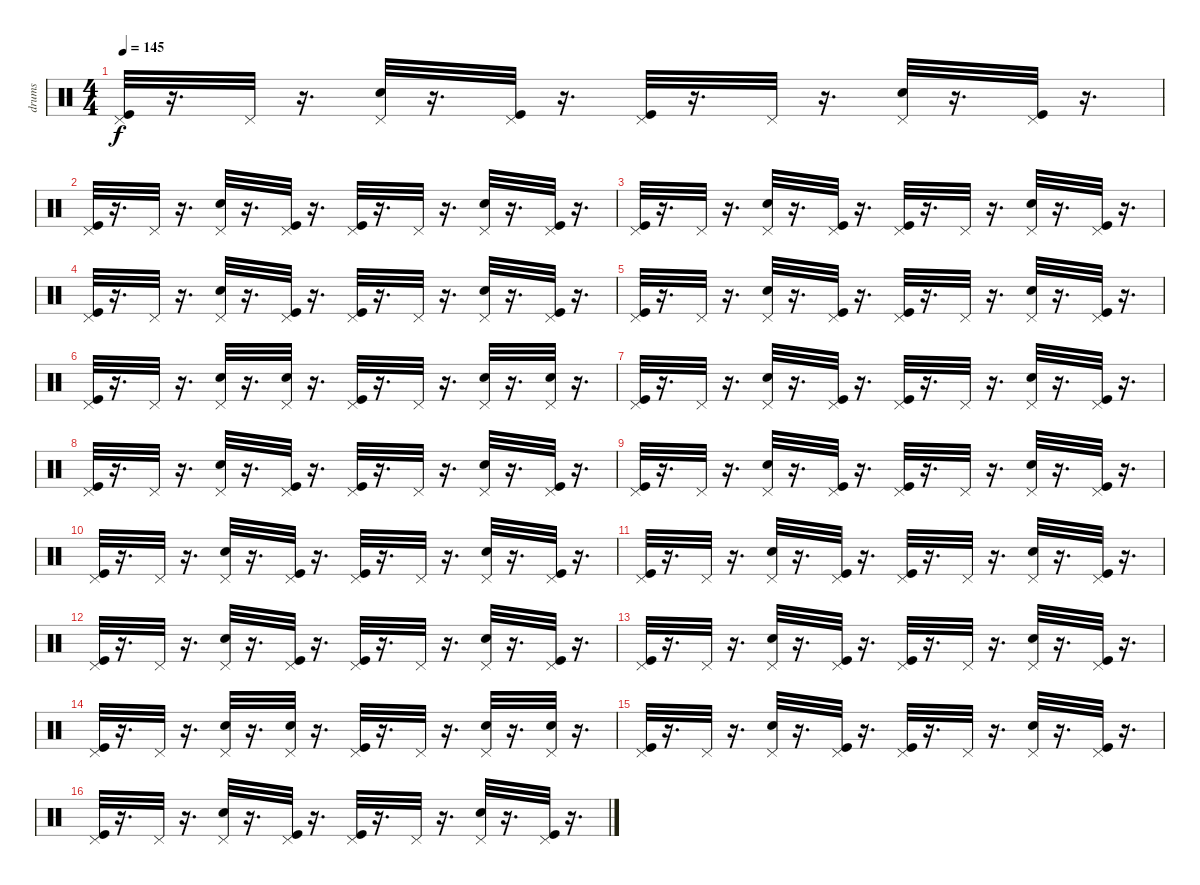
\track ("drums" "drums") {instrument percussion}
\staff {score}
\articulation defaults
\ts (4 4)
\tempo 145
\clef neutral
\ks c
("Pedal Hi-Hat (hit)" "Kick (hit)").32{dy f} r.16{d} "Pedal Hi-Hat (hit)".32 r.16{d} ("Pedal Hi-Hat (hit)" "Electric Snare (hit)").32 r.16{d} ("Pedal Hi-Hat (hit)" "Kick (hit)").32 r.16{d} ("Pedal Hi-Hat (hit)" "Kick (hit)").32 r.16{d} "Pedal Hi-Hat (hit)".32 r.16{d} ("Pedal Hi-Hat (hit)" "Electric Snare (hit)").32 r.16{d} ("Pedal Hi-Hat (hit)" "Kick (hit)").32 r.16{d} |
("Pedal Hi-Hat (hit)" "Kick (hit)").32 r.16{d} "Pedal Hi-Hat (hit)".32 r.16{d} ("Pedal Hi-Hat (hit)" "Electric Snare (hit)").32 r.16{d} ("Pedal Hi-Hat (hit)" "Kick (hit)").32 r.16{d} ("Pedal Hi-Hat (hit)" "Kick (hit)").32 r.16{d} "Pedal Hi-Hat (hit)".32 r.16{d} ("Pedal Hi-Hat (hit)" "Electric Snare (hit)").32 r.16{d} ("Pedal Hi-Hat (hit)" "Kick (hit)").32 r.16{d} |
("Pedal Hi-Hat (hit)" "Kick (hit)").32 r.16{d} "Pedal Hi-Hat (hit)".32 r.16{d} ("Pedal Hi-Hat (hit)" "Electric Snare (hit)").32 r.16{d} ("Pedal Hi-Hat (hit)" "Kick (hit)").32 r.16{d} ("Pedal Hi-Hat (hit)" "Kick (hit)").32 r.16{d} "Pedal Hi-Hat (hit)".32 r.16{d} ("Pedal Hi-Hat (hit)" "Electric Snare (hit)").32 r.16{d} ("Pedal Hi-Hat (hit)" "Kick (hit)").32 r.16{d} |
("Pedal Hi-Hat (hit)" "Kick (hit)").32 r.16{d} "Pedal Hi-Hat (hit)".32 r.16{d} ("Pedal Hi-Hat (hit)" "Electric Snare (hit)").32 r.16{d} ("Pedal Hi-Hat (hit)" "Kick (hit)").32 r.16{d} ("Pedal Hi-Hat (hit)" "Kick (hit)").32 r.16{d} "Pedal Hi-Hat (hit)".32 r.16{d} ("Pedal Hi-Hat (hit)" "Electric Snare (hit)").32 r.16{d} ("Pedal Hi-Hat (hit)" "Kick (hit)").32 r.16{d} |
("Pedal Hi-Hat (hit)" "Kick (hit)").32 r.16{d} "Pedal Hi-Hat (hit)".32 r.16{d} ("Pedal Hi-Hat (hit)" "Electric Snare (hit)").32 r.16{d} ("Pedal Hi-Hat (hit)" "Kick (hit)").32 r.16{d} ("Pedal Hi-Hat (hit)" "Kick (hit)").32 r.16{d} "Pedal Hi-Hat (hit)".32 r.16{d} ("Pedal Hi-Hat (hit)" "Electric Snare (hit)").32 r.16{d} ("Pedal Hi-Hat (hit)" "Kick (hit)").32 r.16{d} |
("Pedal Hi-Hat (hit)" "Kick (hit)").32 r.16{d} "Pedal Hi-Hat (hit)".32 r.16{d} ("Pedal Hi-Hat (hit)" "Electric Snare (hit)").32 r.16{d} ("Electric Snare (hit)" "Pedal Hi-Hat (hit)").32 r.16{d} ("Pedal Hi-Hat (hit)" "Kick (hit)").32 r.16{d} "Pedal Hi-Hat (hit)".32 r.16{d} ("Electric Snare (hit)" "Pedal Hi-Hat (hit)").32 r.16{d} ("Electric Snare (hit)" "Pedal Hi-Hat (hit)").32 r.16{d} |
("Kick (hit)" "Pedal Hi-Hat (hit)").32 r.16{d} "Pedal Hi-Hat (hit)".32 r.16{d} ("Electric Snare (hit)" "Pedal Hi-Hat (hit)").32 r.16{d} ("Pedal Hi-Hat (hit)" "Kick (hit)").32 r.16{d} ("Pedal Hi-Hat (hit)" "Kick (hit)").32 r.16{d} "Pedal Hi-Hat (hit)".32 r.16{d} ("Pedal Hi-Hat (hit)" "Electric Snare (hit)").32 r.16{d} ("Pedal Hi-Hat (hit)" "Kick (hit)").32 r.16{d} |
("Pedal Hi-Hat (hit)" "Kick (hit)").32 r.16{d} "Pedal Hi-Hat (hit)".32 r.16{d} ("Pedal Hi-Hat (hit)" "Electric Snare (hit)").32 r.16{d} ("Pedal Hi-Hat (hit)" "Kick (hit)").32 r.16{d} ("Pedal Hi-Hat (hit)" "Kick (hit)").32 r.16{d} "Pedal Hi-Hat (hit)".32 r.16{d} ("Pedal Hi-Hat (hit)" "Electric Snare (hit)").32 r.16{d} ("Pedal Hi-Hat (hit)" "Kick (hit)").32 r.16{d} |
("Pedal Hi-Hat (hit)" "Kick (hit)").32 r.16{d} "Pedal Hi-Hat (hit)".32 r.16{d} ("Pedal Hi-Hat (hit)" "Electric Snare (hit)").32 r.16{d} ("Pedal Hi-Hat (hit)" "Kick (hit)").32 r.16{d} ("Pedal Hi-Hat (hit)" "Kick (hit)").32 r.16{d} "Pedal Hi-Hat (hit)".32 r.16{d} ("Pedal Hi-Hat (hit)" "Electric Snare (hit)").32 r.16{d} ("Pedal Hi-Hat (hit)" "Kick (hit)").32 r.16{d} |
("Pedal Hi-Hat (hit)" "Kick (hit)").32 r.16{d} "Pedal Hi-Hat (hit)".32 r.16{d} ("Pedal Hi-Hat (hit)" "Electric Snare (hit)").32 r.16{d} ("Pedal Hi-Hat (hit)" "Kick (hit)").32 r.16{d} ("Pedal Hi-Hat (hit)" "Kick (hit)").32 r.16{d} "Pedal Hi-Hat (hit)".32 r.16{d} ("Pedal Hi-Hat (hit)" "Electric Snare (hit)").32 r.16{d} ("Pedal Hi-Hat (hit)" "Kick (hit)").32 r.16{d} |
("Pedal Hi-Hat (hit)" "Kick (hit)").32 r.16{d} "Pedal Hi-Hat (hit)".32 r.16{d} ("Pedal Hi-Hat (hit)" "Electric Snare (hit)").32 r.16{d} ("Pedal Hi-Hat (hit)" "Kick (hit)").32 r.16{d} ("Pedal Hi-Hat (hit)" "Kick (hit)").32 r.16{d} "Pedal Hi-Hat (hit)".32 r.16{d} ("Pedal Hi-Hat (hit)" "Electric Snare (hit)").32 r.16{d} ("Pedal Hi-Hat (hit)" "Kick (hit)").32 r.16{d} |
("Pedal Hi-Hat (hit)" "Kick (hit)").32 r.16{d} "Pedal Hi-Hat (hit)".32 r.16{d} ("Pedal Hi-Hat (hit)" "Electric Snare (hit)").32 r.16{d} ("Pedal Hi-Hat (hit)" "Kick (hit)").32 r.16{d} ("Pedal Hi-Hat (hit)" "Kick (hit)").32 r.16{d} "Pedal Hi-Hat (hit)".32 r.16{d} ("Pedal Hi-Hat (hit)" "Electric Snare (hit)").32 r.16{d} ("Pedal Hi-Hat (hit)" "Kick (hit)").32 r.16{d} |
("Pedal Hi-Hat (hit)" "Kick (hit)").32 r.16{d} "Pedal Hi-Hat (hit)".32 r.16{d} ("Pedal Hi-Hat (hit)" "Electric Snare (hit)").32 r.16{d} ("Pedal Hi-Hat (hit)" "Kick (hit)").32 r.16{d} ("Pedal Hi-Hat (hit)" "Kick (hit)").32 r.16{d} "Pedal Hi-Hat (hit)".32 r.16{d} ("Pedal Hi-Hat (hit)" "Electric Snare (hit)").32 r.16{d} ("Pedal Hi-Hat (hit)" "Kick (hit)").32 r.16{d} |
("Pedal Hi-Hat (hit)" "Kick (hit)").32 r.16{d} "Pedal Hi-Hat (hit)".32 r.16{d} ("Pedal Hi-Hat (hit)" "Electric Snare (hit)").32 r.16{d} ("Electric Snare (hit)" "Pedal Hi-Hat (hit)").32 r.16{d} ("Pedal Hi-Hat (hit)" "Kick (hit)").32 r.16{d} "Pedal Hi-Hat (hit)".32 r.16{d} ("Electric Snare (hit)" "Pedal Hi-Hat (hit)").32 r.16{d} ("Electric Snare (hit)" "Pedal Hi-Hat (hit)").32 r.16{d} |
("Kick (hit)" "Pedal Hi-Hat (hit)").32 r.16{d} "Pedal Hi-Hat (hit)".32{volume 16} r.16{d} ("Electric Snare (hit)" "Pedal Hi-Hat (hit)").32{volume 15} r.16{d} ("Pedal Hi-Hat (hit)" "Kick (hit)").32{volume 15} r.16{d} ("Pedal Hi-Hat (hit)" "Kick (hit)").32{volume 15} r.16{d} "Pedal Hi-Hat (hit)".32{volume 15} r.16{d} ("Pedal Hi-Hat (hit)" "Electric Snare (hit)").32{volume 14} r.16{d} ("Pedal Hi-Hat (hit)" "Kick (hit)").32{volume 14} r.16{d} |
("Pedal Hi-Hat (hit)" "Kick (hit)").32{volume 14} r.16{d} "Pedal Hi-Hat (hit)".32{volume 14} r.16{d} ("Pedal Hi-Hat (hit)" "Electric Snare (hit)").32{volume 13} r.16{d} ("Pedal Hi-Hat (hit)" "Kick (hit)").32{volume 13} r.16{d} ("Pedal Hi-Hat (hit)" "Kick (hit)").32{volume 13} r.16{d} "Pedal Hi-Hat (hit)".32{volume 13} r.16{d} ("Pedal Hi-Hat (hit)" "Electric Snare (hit)").32{volume 12} r.16{d} ("Pedal Hi-Hat (hit)" "Kick (hit)").32{volume 12} r.16{d}
